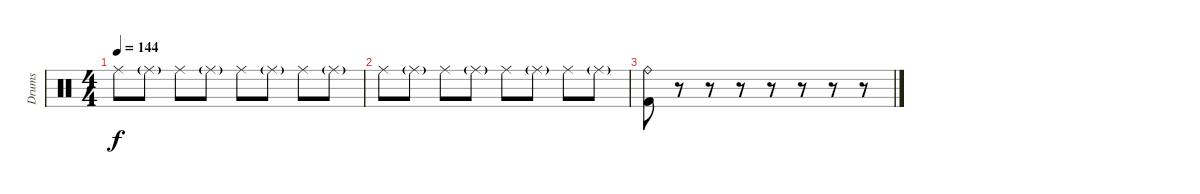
\track ("Drums" "Drums") {instrument percussion}
\staff {score}
\articulation defaults
\ts (4 4)
\tempo 144
\clef neutral
\ks c "Ride (middle)".8{dy f} "Ride (middle)"{g}.8 "Ride (middle)".8 "Ride (middle)"{g}.8 "Ride (middle)".8 "Ride (middle)"{g}.8 "Ride (middle)".8 "Ride (middle)"{g}.8
|
"Ride (middle)".8 "Ride (middle)"{g}.8 "Ride (middle)".8 "Ride (middle)"{g}.8 "Ride (middle)".8 "Ride (middle)"{g}.8 "Ride (middle)".8 "Ride (middle)"{g}.8 |
("Ride (bell)" "Kick (hit) 2").8 r.8 r.8 r.8 r.8 r.8 r.8 r.8
